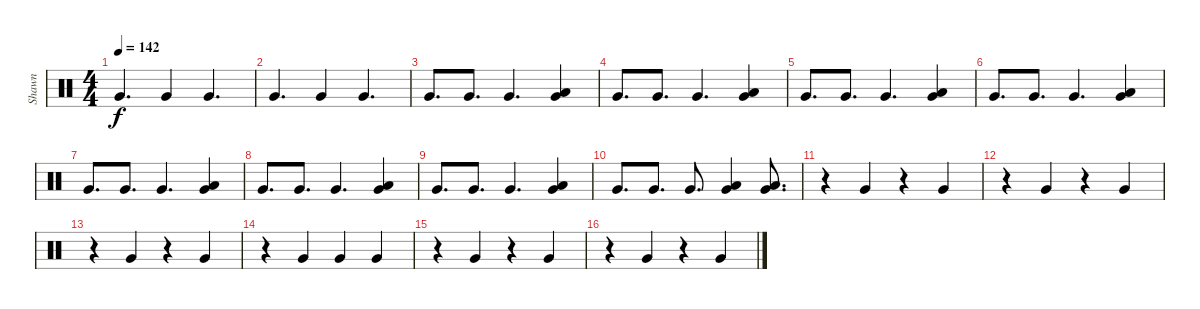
\track ("Shawn" "Shawn") {instrument percussion}
\staff {score}
\articulation defaults
\ts (4 4)
\tempo 142
\clef neutral
\ks c "Very Low Tom (hit)".4{d dy f} "Very Low Tom (hit)".4 "Very Low Tom (hit)".4{d}
|
"Very Low Tom (hit)".4{d} "Very Low Tom (hit)".4 "Very Low Tom (hit)".4{d} |
"Very Low Tom (hit)".8{d} "Very Low Tom (hit)".8{d} "Very Low Tom (hit)".4{d} ("Very Low Tom (hit)" "Low Floor Tom (hit)").4 |
"Very Low Tom (hit)".8{d} "Very Low Tom (hit)".8{d} "Very Low Tom (hit)".4{d} ("Very Low Tom (hit)" "Low Floor Tom (hit)").4 |
"Very Low Tom (hit)".8{d} "Very Low Tom (hit)".8{d} "Very Low Tom (hit)".4{d} ("Very Low Tom (hit)" "Low Floor Tom (hit)").4 |
"Very Low Tom (hit)".8{d} "Very Low Tom (hit)".8{d} "Very Low Tom (hit)".4{d} ("Very Low Tom (hit)" "Low Floor Tom (hit)").4 |
"Very Low Tom (hit)".8{d} "Very Low Tom (hit)".8{d} "Very Low Tom (hit)".4{d} ("Very Low Tom (hit)" "Low Floor Tom (hit)").4 |
"Very Low Tom (hit)".8{d} "Very Low Tom (hit)".8{d} "Very Low Tom (hit)".4{d} ("Very Low Tom (hit)" "Low Floor Tom (hit)").4 |
"Very Low Tom (hit)".8{d} "Very Low Tom (hit)".8{d} "Very Low Tom (hit)".4{d} ("Very Low Tom (hit)" "Low Floor Tom (hit)").4 |
"Very Low Tom (hit)".8{d} "Very Low Tom (hit)".8{d} "Very Low Tom (hit)".8{d} ("Very Low Tom (hit)" "Low Floor Tom (hit)").4 ("Very Low Tom (hit)" "Low Floor Tom (hit)").8{d} |
r.4 "Very Low Tom (hit)".4 r.4 "Very Low Tom (hit)".4 |
r.4 "Very Low Tom (hit)".4 r.4 "Very Low Tom (hit)".4 |
r.4 "Very Low Tom (hit)".4 r.4 "Very Low Tom (hit)".4 |
r.4 "Very Low Tom (hit)".4 "Very Low Tom (hit)".4 "Very Low Tom (hit)".4 |
r.4 "Very Low Tom (hit)".4 r.4 "Very Low Tom (hit)".4 |
r.4 "Very Low Tom (hit)".4 r.4 "Very Low Tom (hit)".4
